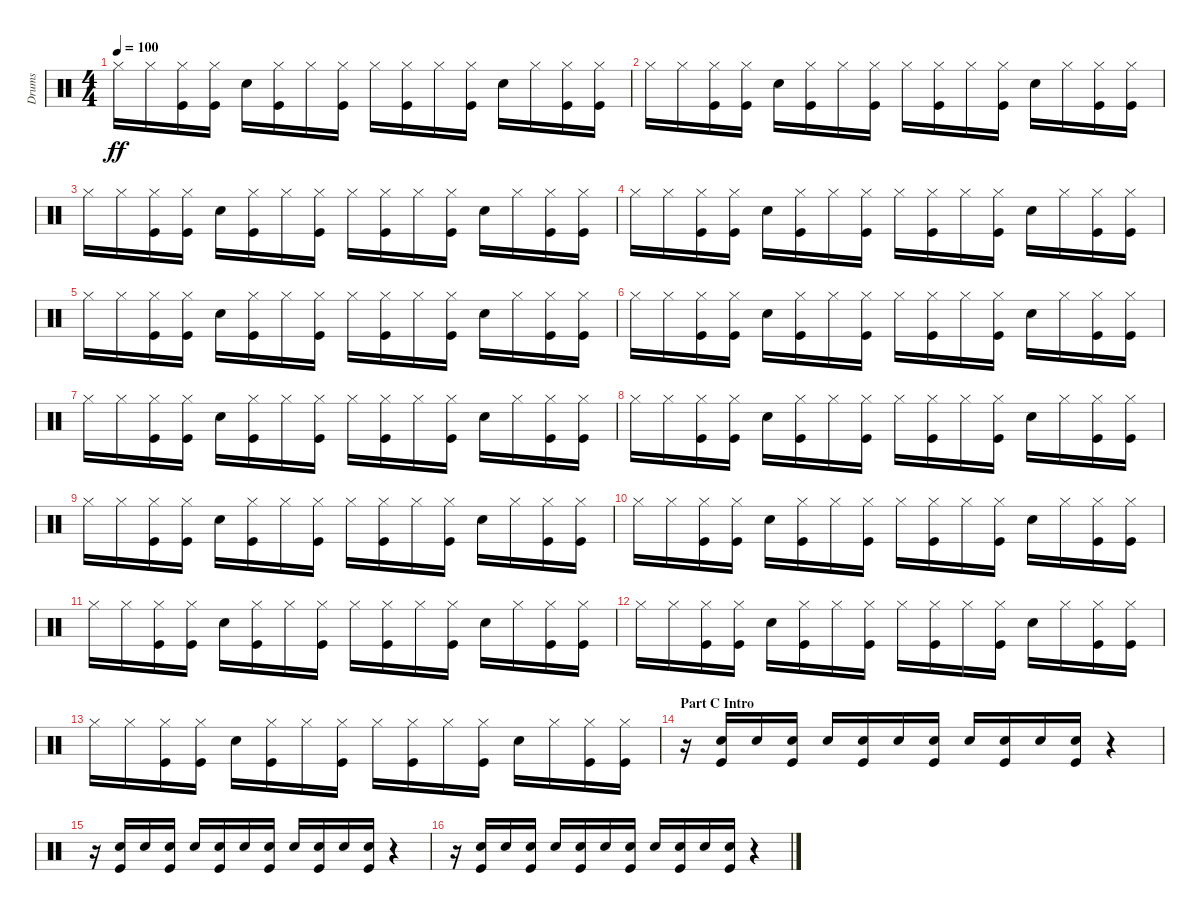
\track ("Drums" "Drums") {instrument percussion}
\staff {score}
\articulation defaults
\ts (4 4)
\tempo 100
\clef neutral
\ks c "Hi-Hat (closed)".16{dy ff} "Hi-Hat (closed)".16
("Hi-Hat (closed)" "Kick (hit)").16 ("Hi-Hat (closed)" "Kick (hit)").16 "Electric Snare (hit)".16 ("Hi-Hat (closed)" "Kick (hit)").16 "Hi-Hat (closed)".16 ("Hi-Hat (closed)" "Kick (hit)").16 "Hi-Hat (closed)".16 ("Hi-Hat (closed)" "Kick (hit)").16 "Hi-Hat (closed)".16 ("Hi-Hat (closed)" "Kick (hit)").16 "Electric Snare (hit)".16 "Hi-Hat (closed)".16 ("Hi-Hat (closed)" "Kick (hit)").16 ("Hi-Hat (closed)" "Kick (hit)").16 |
"Hi-Hat (closed)".16 "Hi-Hat (closed)".16 ("Hi-Hat (closed)" "Kick (hit)").16 ("Hi-Hat (closed)" "Kick (hit)").16 "Electric Snare (hit)".16 ("Hi-Hat (closed)" "Kick (hit)").16 "Hi-Hat (closed)".16 ("Hi-Hat (closed)" "Kick (hit)").16 "Hi-Hat (closed)".16 ("Hi-Hat (closed)" "Kick (hit)").16 "Hi-Hat (closed)".16 ("Hi-Hat (closed)" "Kick (hit)").16 "Electric Snare (hit)".16 "Hi-Hat (closed)".16 ("Hi-Hat (closed)" "Kick (hit)").16 ("Hi-Hat (closed)" "Kick (hit)").16 |
"Hi-Hat (closed)".16 "Hi-Hat (closed)".16 ("Hi-Hat (closed)" "Kick (hit)").16 ("Hi-Hat (closed)" "Kick (hit)").16 "Electric Snare (hit)".16 ("Hi-Hat (closed)" "Kick (hit)").16 "Hi-Hat (closed)".16 ("Hi-Hat (closed)" "Kick (hit)").16 "Hi-Hat (closed)".16 ("Hi-Hat (closed)" "Kick (hit)").16 "Hi-Hat (closed)".16 ("Hi-Hat (closed)" "Kick (hit)").16 "Electric Snare (hit)".16 "Hi-Hat (closed)".16 ("Hi-Hat (closed)" "Kick (hit)").16 ("Hi-Hat (closed)" "Kick (hit)").16 |
"Hi-Hat (closed)".16 "Hi-Hat (closed)".16 ("Hi-Hat (closed)" "Kick (hit)").16 ("Hi-Hat (closed)" "Kick (hit)").16 "Electric Snare (hit)".16 ("Hi-Hat (closed)" "Kick (hit)").16 "Hi-Hat (closed)".16 ("Hi-Hat (closed)" "Kick (hit)").16 "Hi-Hat (closed)".16 ("Hi-Hat (closed)" "Kick (hit)").16 "Hi-Hat (closed)".16 ("Hi-Hat (closed)" "Kick (hit)").16 "Electric Snare (hit)".16 "Hi-Hat (closed)".16 ("Hi-Hat (closed)" "Kick (hit)").16 ("Hi-Hat (closed)" "Kick (hit)").16 |
"Hi-Hat (closed)".16 "Hi-Hat (closed)".16 ("Hi-Hat (closed)" "Kick (hit)").16 ("Hi-Hat (closed)" "Kick (hit)").16 "Electric Snare (hit)".16 ("Hi-Hat (closed)" "Kick (hit)").16 "Hi-Hat (closed)".16 ("Hi-Hat (closed)" "Kick (hit)").16 "Hi-Hat (closed)".16 ("Hi-Hat (closed)" "Kick (hit)").16 "Hi-Hat (closed)".16 ("Hi-Hat (closed)" "Kick (hit)").16 "Electric Snare (hit)".16 "Hi-Hat (closed)".16 ("Hi-Hat (closed)" "Kick (hit)").16 ("Hi-Hat (closed)" "Kick (hit)").16 |
"Hi-Hat (closed)".16 "Hi-Hat (closed)".16 ("Hi-Hat (closed)" "Kick (hit)").16 ("Hi-Hat (closed)" "Kick (hit)").16 "Electric Snare (hit)".16 ("Hi-Hat (closed)" "Kick (hit)").16 "Hi-Hat (closed)".16 ("Hi-Hat (closed)" "Kick (hit)").16 "Hi-Hat (closed)".16 ("Hi-Hat (closed)" "Kick (hit)").16 "Hi-Hat (closed)".16 ("Hi-Hat (closed)" "Kick (hit)").16 "Electric Snare (hit)".16 "Hi-Hat (closed)".16 ("Hi-Hat (closed)" "Kick (hit)").16 ("Hi-Hat (closed)" "Kick (hit)").16 |
"Hi-Hat (closed)".16 "Hi-Hat (closed)".16 ("Hi-Hat (closed)" "Kick (hit)").16 ("Hi-Hat (closed)" "Kick (hit)").16 "Electric Snare (hit)".16 ("Hi-Hat (closed)" "Kick (hit)").16 "Hi-Hat (closed)".16 ("Hi-Hat (closed)" "Kick (hit)").16 "Hi-Hat (closed)".16 ("Hi-Hat (closed)" "Kick (hit)").16 "Hi-Hat (closed)".16 ("Hi-Hat (closed)" "Kick (hit)").16 "Electric Snare (hit)".16 "Hi-Hat (closed)".16 ("Hi-Hat (closed)" "Kick (hit)").16 ("Hi-Hat (closed)" "Kick (hit)").16 |
"Hi-Hat (closed)".16 "Hi-Hat (closed)".16 ("Hi-Hat (closed)" "Kick (hit)").16 ("Hi-Hat (closed)" "Kick (hit)").16 "Electric Snare (hit)".16 ("Hi-Hat (closed)" "Kick (hit)").16 "Hi-Hat (closed)".16 ("Hi-Hat (closed)" "Kick (hit)").16 "Hi-Hat (closed)".16 ("Hi-Hat (closed)" "Kick (hit)").16 "Hi-Hat (closed)".16 ("Hi-Hat (closed)" "Kick (hit)").16 "Electric Snare (hit)".16 "Hi-Hat (closed)".16 ("Hi-Hat (closed)" "Kick (hit)").16 ("Hi-Hat (closed)" "Kick (hit)").16 |
"Hi-Hat (closed)".16 "Hi-Hat (closed)".16 ("Hi-Hat (closed)" "Kick (hit)").16 ("Hi-Hat (closed)" "Kick (hit)").16 "Electric Snare (hit)".16 ("Hi-Hat (closed)" "Kick (hit)").16 "Hi-Hat (closed)".16 ("Hi-Hat (closed)" "Kick (hit)").16 "Hi-Hat (closed)".16 ("Hi-Hat (closed)" "Kick (hit)").16 "Hi-Hat (closed)".16 ("Hi-Hat (closed)" "Kick (hit)").16 "Electric Snare (hit)".16 "Hi-Hat (closed)".16 ("Hi-Hat (closed)" "Kick (hit)").16 ("Hi-Hat (closed)" "Kick (hit)").16 |
"Hi-Hat (closed)".16 "Hi-Hat (closed)".16 ("Hi-Hat (closed)" "Kick (hit)").16 ("Hi-Hat (closed)" "Kick (hit)").16 "Electric Snare (hit)".16 ("Hi-Hat (closed)" "Kick (hit)").16 "Hi-Hat (closed)".16 ("Hi-Hat (closed)" "Kick (hit)").16 "Hi-Hat (closed)".16 ("Hi-Hat (closed)" "Kick (hit)").16 "Hi-Hat (closed)".16 ("Hi-Hat (closed)" "Kick (hit)").16 "Electric Snare (hit)".16 "Hi-Hat (closed)".16 ("Hi-Hat (closed)" "Kick (hit)").16 ("Hi-Hat (closed)" "Kick (hit)").16 |
"Hi-Hat (closed)".16 "Hi-Hat (closed)".16 ("Hi-Hat (closed)" "Kick (hit)").16 ("Hi-Hat (closed)" "Kick (hit)").16 "Electric Snare (hit)".16 ("Hi-Hat (closed)" "Kick (hit)").16 "Hi-Hat (closed)".16 ("Hi-Hat (closed)" "Kick (hit)").16 "Hi-Hat (closed)".16 ("Hi-Hat (closed)" "Kick (hit)").16 "Hi-Hat (closed)".16 ("Hi-Hat (closed)" "Kick (hit)").16 "Electric Snare (hit)".16 "Hi-Hat (closed)".16 ("Hi-Hat (closed)" "Kick (hit)").16 ("Hi-Hat (closed)" "Kick (hit)").16 |
"Hi-Hat (closed)".16 "Hi-Hat (closed)".16 ("Hi-Hat (closed)" "Kick (hit)").16 ("Hi-Hat (closed)" "Kick (hit)").16 "Electric Snare (hit)".16 ("Hi-Hat (closed)" "Kick (hit)").16 "Hi-Hat (closed)".16 ("Hi-Hat (closed)" "Kick (hit)").16 "Hi-Hat (closed)".16 ("Hi-Hat (closed)" "Kick (hit)").16 "Hi-Hat (closed)".16 ("Hi-Hat (closed)" "Kick (hit)").16 "Electric Snare (hit)".16 "Hi-Hat (closed)".16 ("Hi-Hat (closed)" "Kick (hit)").16 ("Hi-Hat (closed)" "Kick (hit)").16 |
"Hi-Hat (closed)".16 "Hi-Hat (closed)".16 ("Hi-Hat (closed)" "Kick (hit)").16 ("Hi-Hat (closed)" "Kick (hit)").16 "Electric Snare (hit)".16 ("Hi-Hat (closed)" "Kick (hit)").16 "Hi-Hat (closed)".16 ("Hi-Hat (closed)" "Kick (hit)").16 "Hi-Hat (closed)".16 ("Hi-Hat (closed)" "Kick (hit)").16 "Hi-Hat (closed)".16 ("Hi-Hat (closed)" "Kick (hit)").16 "Electric Snare (hit)".16 "Hi-Hat (closed)".16 ("Hi-Hat (closed)" "Kick (hit)").16 ("Hi-Hat (closed)" "Kick (hit)").16 |
\section ("" "Part C Intro")
r.16 ("Electric Snare (hit)" "Kick (hit)").16 "Electric Snare (hit)".16 ("Electric Snare (hit)" "Kick (hit)").16 "Electric Snare (hit)".16 ("Electric Snare (hit)" "Kick (hit)").16 "Electric Snare (hit)".16 ("Electric Snare (hit)" "Kick (hit)").16 "Electric Snare (hit)".16 ("Electric Snare (hit)" "Kick (hit)").16 "Electric Snare (hit)".16 ("Electric Snare (hit)" "Kick (hit)").16 r.4 |
r.16 ("Electric Snare (hit)" "Kick (hit)").16 "Electric Snare (hit)".16 ("Electric Snare (hit)" "Kick (hit)").16 "Electric Snare (hit)".16 ("Electric Snare (hit)" "Kick (hit)").16 "Electric Snare (hit)".16 ("Electric Snare (hit)" "Kick (hit)").16 "Electric Snare (hit)".16 ("Electric Snare (hit)" "Kick (hit)").16 "Electric Snare (hit)".16 ("Electric Snare (hit)" "Kick (hit)").16 r.4 |
r.16 ("Electric Snare (hit)" "Kick (hit)").16 "Electric Snare (hit)".16 ("Electric Snare (hit)" "Kick (hit)").16 "Electric Snare (hit)".16 ("Electric Snare (hit)" "Kick (hit)").16 "Electric Snare (hit)".16 ("Electric Snare (hit)" "Kick (hit)").16 "Electric Snare (hit)".16 ("Electric Snare (hit)" "Kick (hit)").16 "Electric Snare (hit)".16 ("Electric Snare (hit)" "Kick (hit)").16 r.4
